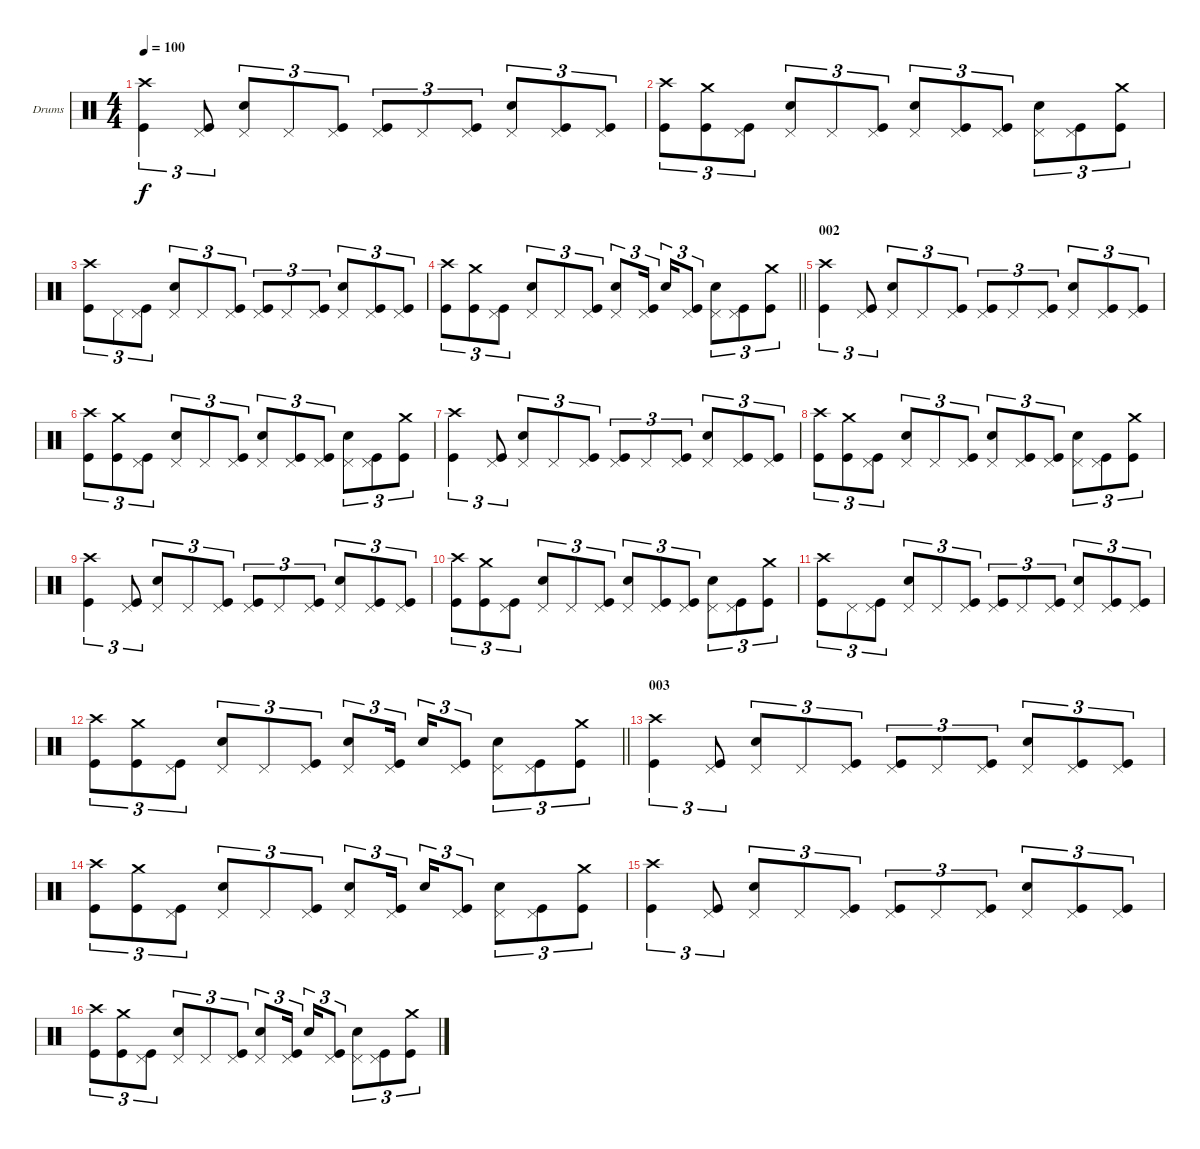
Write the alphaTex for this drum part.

\bracketExtendMode groupsimilarinstruments
\firstSystemTrackNameOrientation horizontal
\otherSystemsTrackNameOrientation horizontal
\track ("drums (Anton Zulganov)" "Drums") {instrument percussion}
\staff {score}
\articulation defaults
\ts (4 4)
\tempo 100
\clef neutral
\ks aminor
("Kick (hit)" "Crash high (hit)").4{tu (3 2) dy f} ("Kick (hit)" "Pedal Hi-Hat (hit)").8{tu (3 2)} ("Snare (hit) 2" "Pedal Hi-Hat (hit)").8{tu (3 2)} "Pedal Hi-Hat (hit)".8{tu (3 2)} ("Kick (hit)" "Pedal Hi-Hat (hit)").8{tu (3 2)} ("Kick (hit)" "Pedal Hi-Hat (hit)").8{tu (3 2)} "Pedal Hi-Hat (hit)".8{tu (3 2)} ("Kick (hit)" "Pedal Hi-Hat (hit)").8{tu (3 2)} ("Snare (hit) 2" "Pedal Hi-Hat (hit)").8{tu (3 2)} ("Kick (hit)" "Pedal Hi-Hat (hit)").8{tu (3 2)} ("Kick (hit)" "Pedal Hi-Hat (hit)").8{tu (3 2)} |
("Kick (hit)" "Crash high (hit)").8{tu (3 2)} ("Kick (hit)" "Crash medium (hit)").8{tu (3 2)} ("Kick (hit)" "Pedal Hi-Hat (hit)").8{tu (3 2)} ("Snare (hit) 2" "Pedal Hi-Hat (hit)").8{tu (3 2)} "Pedal Hi-Hat (hit)".8{tu (3 2)} ("Kick (hit)" "Pedal Hi-Hat (hit)").8{tu (3 2)} ("Snare (hit) 2" "Pedal Hi-Hat (hit)").8{tu (3 2)} ("Kick (hit)" "Pedal Hi-Hat (hit)").8{tu (3 2)} ("Kick (hit)" "Pedal Hi-Hat (hit)").8{tu (3 2)} ("Snare (hit) 2" "Pedal Hi-Hat (hit)").8{tu (3 2)} ("Kick (hit)" "Pedal Hi-Hat (hit)").8{tu (3 2)} ("Kick (hit)" "Crash medium (hit)").8{tu (3 2)} |
("Kick (hit)" "Crash high (hit)").8{tu (3 2)} "Pedal Hi-Hat (hit)".8{tu (3 2)} ("Kick (hit)" "Pedal Hi-Hat (hit)").8{tu (3 2)} ("Snare (hit) 2" "Pedal Hi-Hat (hit)").8{tu (3 2)} "Pedal Hi-Hat (hit)".8{tu (3 2)} ("Kick (hit)" "Pedal Hi-Hat (hit)").8{tu (3 2)} ("Kick (hit)" "Pedal Hi-Hat (hit)").8{tu (3 2)} "Pedal Hi-Hat (hit)".8{tu (3 2)} ("Kick (hit)" "Pedal Hi-Hat (hit)").8{tu (3 2)} ("Snare (hit) 2" "Pedal Hi-Hat (hit)").8{tu (3 2)} ("Kick (hit)" "Pedal Hi-Hat (hit)").8{tu (3 2)} ("Kick (hit)" "Pedal Hi-Hat (hit)").8{tu (3 2)} |
\barLineRight lightlight
("Kick (hit)" "Crash high (hit)").8{tu (3 2)} ("Kick (hit)" "Crash medium (hit)").8{tu (3 2)} ("Kick (hit)" "Pedal Hi-Hat (hit)").8{tu (3 2)} ("Snare (hit) 2" "Pedal Hi-Hat (hit)").8{tu (3 2)} "Pedal Hi-Hat (hit)".8{tu (3 2)} ("Kick (hit)" "Pedal Hi-Hat (hit)").8{tu (3 2)} ("Snare (hit) 2" "Pedal Hi-Hat (hit)").8{tu (3 2)} ("Pedal Hi-Hat (hit)" "Kick (hit)").16{tu (3 2)} "Snare (hit) 2".16{tu (3 2)} ("Pedal Hi-Hat (hit)" "Kick (hit)").8{tu (3 2)} ("Snare (hit) 2" "Pedal Hi-Hat (hit)").8{tu (3 2)} ("Kick (hit)" "Pedal Hi-Hat (hit)").8{tu (3 2)} ("Kick (hit)" "Crash medium (hit)").8{tu (3 2)} |
\section ("" "002")
("Kick (hit)" "Crash high (hit)").4{tu (3 2)} ("Kick (hit)" "Pedal Hi-Hat (hit)").8{tu (3 2)} ("Snare (hit) 2" "Pedal Hi-Hat (hit)").8{tu (3 2)} "Pedal Hi-Hat (hit)".8{tu (3 2)} ("Kick (hit)" "Pedal Hi-Hat (hit)").8{tu (3 2)} ("Kick (hit)" "Pedal Hi-Hat (hit)").8{tu (3 2)} "Pedal Hi-Hat (hit)".8{tu (3 2)} ("Kick (hit)" "Pedal Hi-Hat (hit)").8{tu (3 2)} ("Snare (hit) 2" "Pedal Hi-Hat (hit)").8{tu (3 2)} ("Kick (hit)" "Pedal Hi-Hat (hit)").8{tu (3 2)} ("Kick (hit)" "Pedal Hi-Hat (hit)").8{tu (3 2)} |
("Kick (hit)" "Crash high (hit)").8{tu (3 2)} ("Kick (hit)" "Crash medium (hit)").8{tu (3 2)} ("Kick (hit)" "Pedal Hi-Hat (hit)").8{tu (3 2)} ("Snare (hit) 2" "Pedal Hi-Hat (hit)").8{tu (3 2)} "Pedal Hi-Hat (hit)".8{tu (3 2)} ("Kick (hit)" "Pedal Hi-Hat (hit)").8{tu (3 2)} ("Snare (hit) 2" "Pedal Hi-Hat (hit)").8{tu (3 2)} ("Kick (hit)" "Pedal Hi-Hat (hit)").8{tu (3 2)} ("Kick (hit)" "Pedal Hi-Hat (hit)").8{tu (3 2)} ("Snare (hit) 2" "Pedal Hi-Hat (hit)").8{tu (3 2)} ("Kick (hit)" "Pedal Hi-Hat (hit)").8{tu (3 2)} ("Kick (hit)" "Crash medium (hit)").8{tu (3 2)} |
("Kick (hit)" "Crash high (hit)").4{tu (3 2)} ("Kick (hit)" "Pedal Hi-Hat (hit)").8{tu (3 2)} ("Snare (hit) 2" "Pedal Hi-Hat (hit)").8{tu (3 2)} "Pedal Hi-Hat (hit)".8{tu (3 2)} ("Kick (hit)" "Pedal Hi-Hat (hit)").8{tu (3 2)} ("Kick (hit)" "Pedal Hi-Hat (hit)").8{tu (3 2)} "Pedal Hi-Hat (hit)".8{tu (3 2)} ("Kick (hit)" "Pedal Hi-Hat (hit)").8{tu (3 2)} ("Snare (hit) 2" "Pedal Hi-Hat (hit)").8{tu (3 2)} ("Kick (hit)" "Pedal Hi-Hat (hit)").8{tu (3 2)} ("Kick (hit)" "Pedal Hi-Hat (hit)").8{tu (3 2)} |
("Kick (hit)" "Crash high (hit)").8{tu (3 2)} ("Kick (hit)" "Crash medium (hit)").8{tu (3 2)} ("Kick (hit)" "Pedal Hi-Hat (hit)").8{tu (3 2)} ("Snare (hit) 2" "Pedal Hi-Hat (hit)").8{tu (3 2)} "Pedal Hi-Hat (hit)".8{tu (3 2)} ("Kick (hit)" "Pedal Hi-Hat (hit)").8{tu (3 2)} ("Snare (hit) 2" "Pedal Hi-Hat (hit)").8{tu (3 2)} ("Kick (hit)" "Pedal Hi-Hat (hit)").8{tu (3 2)} ("Kick (hit)" "Pedal Hi-Hat (hit)").8{tu (3 2)} ("Snare (hit) 2" "Pedal Hi-Hat (hit)").8{tu (3 2)} ("Kick (hit)" "Pedal Hi-Hat (hit)").8{tu (3 2)} ("Kick (hit)" "Crash medium (hit)").8{tu (3 2)} |
("Kick (hit)" "Crash high (hit)").4{tu (3 2)} ("Kick (hit)" "Pedal Hi-Hat (hit)").8{tu (3 2)} ("Snare (hit) 2" "Pedal Hi-Hat (hit)").8{tu (3 2)} "Pedal Hi-Hat (hit)".8{tu (3 2)} ("Kick (hit)" "Pedal Hi-Hat (hit)").8{tu (3 2)} ("Kick (hit)" "Pedal Hi-Hat (hit)").8{tu (3 2)} "Pedal Hi-Hat (hit)".8{tu (3 2)} ("Kick (hit)" "Pedal Hi-Hat (hit)").8{tu (3 2)} ("Snare (hit) 2" "Pedal Hi-Hat (hit)").8{tu (3 2)} ("Kick (hit)" "Pedal Hi-Hat (hit)").8{tu (3 2)} ("Kick (hit)" "Pedal Hi-Hat (hit)").8{tu (3 2)} |
("Kick (hit)" "Crash high (hit)").8{tu (3 2)} ("Kick (hit)" "Crash medium (hit)").8{tu (3 2)} ("Kick (hit)" "Pedal Hi-Hat (hit)").8{tu (3 2)} ("Snare (hit) 2" "Pedal Hi-Hat (hit)").8{tu (3 2)} "Pedal Hi-Hat (hit)".8{tu (3 2)} ("Kick (hit)" "Pedal Hi-Hat (hit)").8{tu (3 2)} ("Snare (hit) 2" "Pedal Hi-Hat (hit)").8{tu (3 2)} ("Kick (hit)" "Pedal Hi-Hat (hit)").8{tu (3 2)} ("Kick (hit)" "Pedal Hi-Hat (hit)").8{tu (3 2)} ("Snare (hit) 2" "Pedal Hi-Hat (hit)").8{tu (3 2)} ("Kick (hit)" "Pedal Hi-Hat (hit)").8{tu (3 2)} ("Kick (hit)" "Crash medium (hit)").8{tu (3 2)} |
("Kick (hit)" "Crash high (hit)").8{tu (3 2)} "Pedal Hi-Hat (hit)".8{tu (3 2)} ("Kick (hit)" "Pedal Hi-Hat (hit)").8{tu (3 2)} ("Snare (hit) 2" "Pedal Hi-Hat (hit)").8{tu (3 2)} "Pedal Hi-Hat (hit)".8{tu (3 2)} ("Kick (hit)" "Pedal Hi-Hat (hit)").8{tu (3 2)} ("Kick (hit)" "Pedal Hi-Hat (hit)").8{tu (3 2)} "Pedal Hi-Hat (hit)".8{tu (3 2)} ("Kick (hit)" "Pedal Hi-Hat (hit)").8{tu (3 2)} ("Snare (hit) 2" "Pedal Hi-Hat (hit)").8{tu (3 2)} ("Kick (hit)" "Pedal Hi-Hat (hit)").8{tu (3 2)} ("Kick (hit)" "Pedal Hi-Hat (hit)").8{tu (3 2)} |
\barLineRight lightlight
("Kick (hit)" "Crash high (hit)").8{tu (3 2)} ("Kick (hit)" "Crash medium (hit)").8{tu (3 2)} ("Kick (hit)" "Pedal Hi-Hat (hit)").8{tu (3 2)} ("Snare (hit) 2" "Pedal Hi-Hat (hit)").8{tu (3 2)} "Pedal Hi-Hat (hit)".8{tu (3 2)} ("Kick (hit)" "Pedal Hi-Hat (hit)").8{tu (3 2)} ("Snare (hit) 2" "Pedal Hi-Hat (hit)").8{tu (3 2)} ("Pedal Hi-Hat (hit)" "Kick (hit)").16{tu (3 2)} "Snare (hit) 2".16{tu (3 2)} ("Pedal Hi-Hat (hit)" "Kick (hit)").8{tu (3 2)} ("Snare (hit) 2" "Pedal Hi-Hat (hit)").8{tu (3 2)} ("Kick (hit)" "Pedal Hi-Hat (hit)").8{tu (3 2)} ("Kick (hit)" "Crash medium (hit)").8{tu (3 2)} |
\section ("" "003")
("Kick (hit)" "Crash high (hit)").4{tu (3 2)} ("Kick (hit)" "Pedal Hi-Hat (hit)").8{tu (3 2)} ("Snare (hit) 2" "Pedal Hi-Hat (hit)").8{tu (3 2)} "Pedal Hi-Hat (hit)".8{tu (3 2)} ("Kick (hit)" "Pedal Hi-Hat (hit)").8{tu (3 2)} ("Kick (hit)" "Pedal Hi-Hat (hit)").8{tu (3 2)} "Pedal Hi-Hat (hit)".8{tu (3 2)} ("Kick (hit)" "Pedal Hi-Hat (hit)").8{tu (3 2)} ("Snare (hit) 2" "Pedal Hi-Hat (hit)").8{tu (3 2)} ("Kick (hit)" "Pedal Hi-Hat (hit)").8{tu (3 2)} ("Kick (hit)" "Pedal Hi-Hat (hit)").8{tu (3 2)} |
("Kick (hit)" "Crash high (hit)").8{tu (3 2)} ("Kick (hit)" "Crash medium (hit)").8{tu (3 2)} ("Kick (hit)" "Pedal Hi-Hat (hit)").8{tu (3 2)} ("Snare (hit) 2" "Pedal Hi-Hat (hit)").8{tu (3 2)} "Pedal Hi-Hat (hit)".8{tu (3 2)} ("Kick (hit)" "Pedal Hi-Hat (hit)").8{tu (3 2)} ("Snare (hit) 2" "Pedal Hi-Hat (hit)").8{tu (3 2)} ("Pedal Hi-Hat (hit)" "Kick (hit)").16{tu (3 2)} "Snare (hit) 2".16{tu (3 2)} ("Pedal Hi-Hat (hit)" "Kick (hit)").8{tu (3 2)} ("Snare (hit) 2" "Pedal Hi-Hat (hit)").8{tu (3 2)} ("Kick (hit)" "Pedal Hi-Hat (hit)").8{tu (3 2)} ("Kick (hit)" "Crash medium (hit)").8{tu (3 2)} |
("Kick (hit)" "Crash high (hit)").4{tu (3 2)} ("Kick (hit)" "Pedal Hi-Hat (hit)").8{tu (3 2)} ("Snare (hit) 2" "Pedal Hi-Hat (hit)").8{tu (3 2)} "Pedal Hi-Hat (hit)".8{tu (3 2)} ("Kick (hit)" "Pedal Hi-Hat (hit)").8{tu (3 2)} ("Kick (hit)" "Pedal Hi-Hat (hit)").8{tu (3 2)} "Pedal Hi-Hat (hit)".8{tu (3 2)} ("Kick (hit)" "Pedal Hi-Hat (hit)").8{tu (3 2)} ("Snare (hit) 2" "Pedal Hi-Hat (hit)").8{tu (3 2)} ("Kick (hit)" "Pedal Hi-Hat (hit)").8{tu (3 2)} ("Kick (hit)" "Pedal Hi-Hat (hit)").8{tu (3 2)} |
("Kick (hit)" "Crash high (hit)").8{tu (3 2)} ("Kick (hit)" "Crash medium (hit)").8{tu (3 2)} ("Kick (hit)" "Pedal Hi-Hat (hit)").8{tu (3 2)} ("Snare (hit) 2" "Pedal Hi-Hat (hit)").8{tu (3 2)} "Pedal Hi-Hat (hit)".8{tu (3 2)} ("Kick (hit)" "Pedal Hi-Hat (hit)").8{tu (3 2)} ("Snare (hit) 2" "Pedal Hi-Hat (hit)").8{tu (3 2)} ("Pedal Hi-Hat (hit)" "Kick (hit)").16{tu (3 2)} "Snare (hit) 2".16{tu (3 2)} ("Pedal Hi-Hat (hit)" "Kick (hit)").8{tu (3 2)} ("Snare (hit) 2" "Pedal Hi-Hat (hit)").8{tu (3 2)} ("Kick (hit)" "Pedal Hi-Hat (hit)").8{tu (3 2)} ("Kick (hit)" "Crash medium (hit)").8{tu (3 2)}
